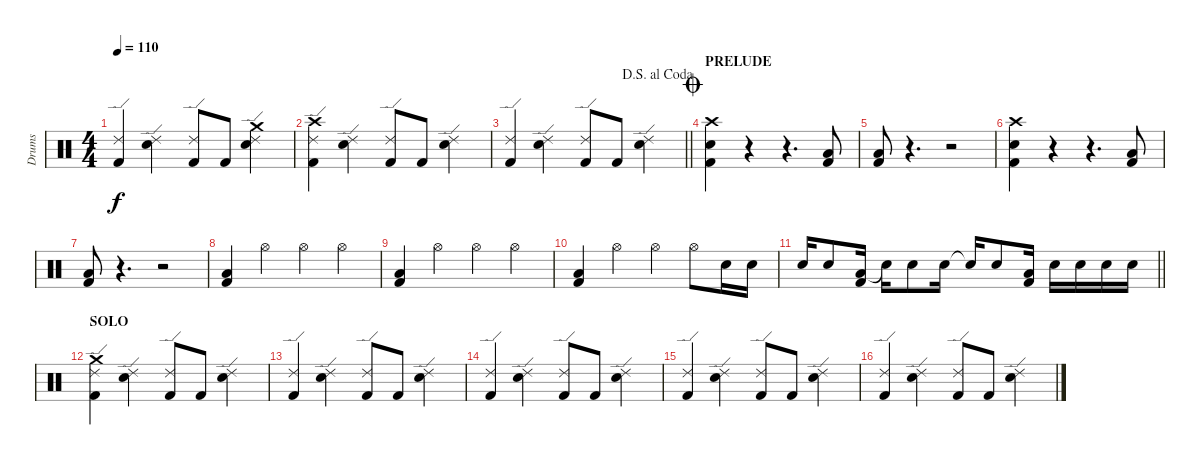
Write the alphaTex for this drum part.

\track ("Drums" "Drums") {instrument percussion}
\staff {score}
\articulation defaults
\ts (4 4)
\tempo 110
\clef neutral
\ks aminor
("Ride (edge) 2" "Kick (hit) 2").4{dy f} ("Ride (edge) 2" "Electric Snare (hit)").4 ("Ride (edge) 2" "Kick (hit) 2").8 "Kick (hit) 2".8 ("Crash medium (hit)" "Ride (edge) 2" "Electric Snare (hit)").4 |
("Crash high (hit)" "Ride (edge) 2" "Kick (hit) 2").4 ("Ride (edge) 2" "Electric Snare (hit)").4 ("Ride (edge) 2" "Kick (hit) 2").8 "Kick (hit) 2".8 ("Ride (edge) 2" "Electric Snare (hit)").4 |
\jump dalsegnoalcoda
\barLineRight lightlight
("Ride (edge) 2" "Kick (hit) 2").4 ("Ride (edge) 2" "Electric Snare (hit)").4 ("Ride (edge) 2" "Kick (hit) 2").8 "Kick (hit) 2".8 ("Ride (edge) 2" "Electric Snare (hit)").4 |
\section ("" "PRELUDE")
\jump coda
("Crash high (hit)" "Electric Snare (hit)" "Kick (hit) 2").4 r.4 r.4{d} ("Low Tom (hit)" "Kick (hit) 2").8 |
("Low Tom (hit)" "Kick (hit) 2").8 r.4{d} r.2 |
("Crash high (hit)" "Electric Snare (hit)" "Kick (hit) 2").4 r.4 r.4{d} ("Low Tom (hit)" "Kick (hit) 2").8 |
("Low Tom (hit)" "Kick (hit) 2").8 r.4{d} r.2 |
("Low Tom (hit)" "Kick (hit) 2").4 "Hi-Hat (open)".4 "Hi-Hat (open)".4 "Hi-Hat (open)".4 |
("Low Tom (hit)" "Kick (hit) 2").4 "Hi-Hat (open)".4 "Hi-Hat (open)".4 "Hi-Hat (open)".4 |
("Low Tom (hit)" "Kick (hit) 2").4 "Hi-Hat (open)".4 "Hi-Hat (open)".4 "Hi-Hat (open)".8 "Electric Snare (hit)".16 "Electric Snare (hit)".16 |
\barLineRight lightlight "Electric Snare (hit)".16 "Electric Snare (hit)".8
("Low Tom (hit)" "Kick (hit) 2").16 "Snare (hit)"{t}.16 "Electric Snare (hit)".8 "Electric Snare (hit)".16 "Snare (hit)"{t}.16 "Electric Snare (hit)".8 ("Low Tom (hit)" "Kick (hit) 2").16 "Electric Snare (hit)".16 "Electric Snare (hit)".16 "Electric Snare (hit)".16 "Electric Snare (hit)".16 |
\section ("" "SOLO")
("Crash medium (hit)" "Ride (edge) 2" "Kick (hit) 2").4 ("Ride (edge) 2" "Electric Snare (hit)").4 ("Ride (edge) 2" "Kick (hit) 2").8 "Kick (hit) 2".8 ("Ride (edge) 2" "Electric Snare (hit)").4 |
("Ride (edge) 2" "Kick (hit) 2").4 ("Ride (edge) 2" "Electric Snare (hit)").4 ("Ride (edge) 2" "Kick (hit) 2").8 "Kick (hit) 2".8 ("Ride (edge) 2" "Electric Snare (hit)").4 |
("Ride (edge) 2" "Kick (hit) 2").4 ("Ride (edge) 2" "Electric Snare (hit)").4 ("Ride (edge) 2" "Kick (hit) 2").8 "Kick (hit) 2".8 ("Ride (edge) 2" "Electric Snare (hit)").4 |
("Ride (edge) 2" "Kick (hit) 2").4 ("Ride (edge) 2" "Electric Snare (hit)").4 ("Ride (edge) 2" "Kick (hit) 2").8 "Kick (hit) 2".8 ("Ride (edge) 2" "Electric Snare (hit)").4 |
("Ride (edge) 2" "Kick (hit) 2").4 ("Ride (edge) 2" "Electric Snare (hit)").4 ("Ride (edge) 2" "Kick (hit) 2").8 "Kick (hit) 2".8 ("Ride (edge) 2" "Electric Snare (hit)").4
